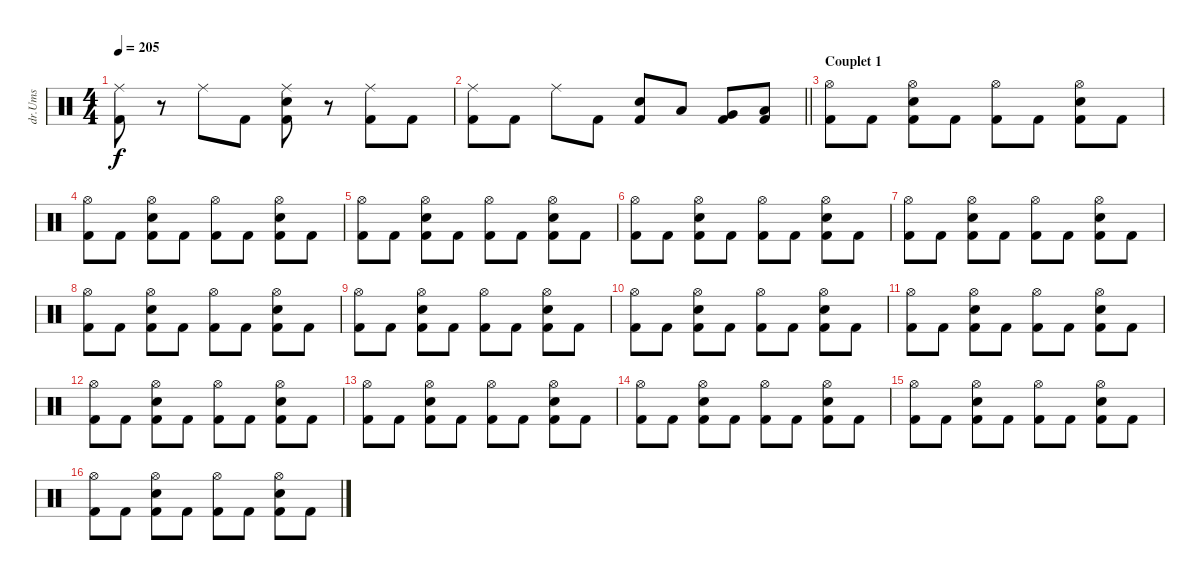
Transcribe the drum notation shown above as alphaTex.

\track ("dr.Ums" "dr.Ums") {instrument percussion}
\staff {score}
\articulation defaults
\ts (4 4)
\tempo 205
\clef neutral
\ks c
("Ride (middle)" "Kick (hit) 2").8{dy f} r.8 "Ride (middle)".8 "Kick (hit) 2".8 ("Ride (middle)" "Snare (hit) 2" "Kick (hit) 2").8 r.8 ("Ride (middle)" "Kick (hit) 2").8 "Kick (hit) 2".8 |
\barLineRight lightlight
("Ride (middle)" "Kick (hit) 2").8 "Kick (hit) 2".8 "Ride (middle)".8 "Kick (hit) 2".8 ("Snare (hit) 2" "Kick (hit) 2").8 "Low Tom (hit)".8 ("Very Low Tom (hit)" "Kick (hit) 2").8 ("Low Floor Tom (hit)" "Kick (hit) 2").8 |
\section ("" "Couplet 1")
("Kick (hit) 2" "Hi-Hat (open)").8 "Kick (hit) 2".8 ("Kick (hit) 2" "Hi-Hat (open)" "Snare (hit) 2").8 "Kick (hit) 2".8 ("Kick (hit) 2" "Hi-Hat (open)").8 "Kick (hit) 2".8 ("Kick (hit) 2" "Hi-Hat (open)" "Snare (hit) 2").8 "Kick (hit) 2".8 |
("Kick (hit) 2" "Hi-Hat (open)").8 "Kick (hit) 2".8 ("Kick (hit) 2" "Hi-Hat (open)" "Snare (hit) 2").8 "Kick (hit) 2".8 ("Kick (hit) 2" "Hi-Hat (open)").8 "Kick (hit) 2".8 ("Kick (hit) 2" "Hi-Hat (open)" "Snare (hit) 2").8 "Kick (hit) 2".8 |
("Kick (hit) 2" "Hi-Hat (open)").8 "Kick (hit) 2".8 ("Kick (hit) 2" "Hi-Hat (open)" "Snare (hit) 2").8 "Kick (hit) 2".8 ("Kick (hit) 2" "Hi-Hat (open)").8 "Kick (hit) 2".8 ("Kick (hit) 2" "Hi-Hat (open)" "Snare (hit) 2").8 "Kick (hit) 2".8 |
("Kick (hit) 2" "Hi-Hat (open)").8 "Kick (hit) 2".8 ("Kick (hit) 2" "Hi-Hat (open)" "Snare (hit) 2").8 "Kick (hit) 2".8 ("Kick (hit) 2" "Hi-Hat (open)").8 "Kick (hit) 2".8 ("Kick (hit) 2" "Hi-Hat (open)" "Snare (hit) 2").8 "Kick (hit) 2".8 |
("Kick (hit) 2" "Hi-Hat (open)").8 "Kick (hit) 2".8 ("Kick (hit) 2" "Hi-Hat (open)" "Snare (hit) 2").8 "Kick (hit) 2".8 ("Kick (hit) 2" "Hi-Hat (open)").8 "Kick (hit) 2".8 ("Kick (hit) 2" "Hi-Hat (open)" "Snare (hit) 2").8 "Kick (hit) 2".8 |
("Kick (hit) 2" "Hi-Hat (open)").8 "Kick (hit) 2".8 ("Kick (hit) 2" "Hi-Hat (open)" "Snare (hit) 2").8 "Kick (hit) 2".8 ("Kick (hit) 2" "Hi-Hat (open)").8 "Kick (hit) 2".8 ("Kick (hit) 2" "Hi-Hat (open)" "Snare (hit) 2").8 "Kick (hit) 2".8 |
("Kick (hit) 2" "Hi-Hat (open)").8 "Kick (hit) 2".8 ("Kick (hit) 2" "Hi-Hat (open)" "Snare (hit) 2").8 "Kick (hit) 2".8 ("Kick (hit) 2" "Hi-Hat (open)").8 "Kick (hit) 2".8 ("Kick (hit) 2" "Hi-Hat (open)" "Snare (hit) 2").8 "Kick (hit) 2".8 |
("Kick (hit) 2" "Hi-Hat (open)").8 "Kick (hit) 2".8 ("Kick (hit) 2" "Hi-Hat (open)" "Snare (hit) 2").8 "Kick (hit) 2".8 ("Kick (hit) 2" "Hi-Hat (open)").8 "Kick (hit) 2".8 ("Kick (hit) 2" "Hi-Hat (open)" "Snare (hit) 2").8 "Kick (hit) 2".8 |
("Kick (hit) 2" "Hi-Hat (open)").8 "Kick (hit) 2".8 ("Kick (hit) 2" "Hi-Hat (open)" "Snare (hit) 2").8 "Kick (hit) 2".8 ("Kick (hit) 2" "Hi-Hat (open)").8 "Kick (hit) 2".8 ("Kick (hit) 2" "Hi-Hat (open)" "Snare (hit) 2").8 "Kick (hit) 2".8 |
("Kick (hit) 2" "Hi-Hat (open)").8 "Kick (hit) 2".8 ("Kick (hit) 2" "Hi-Hat (open)" "Snare (hit) 2").8 "Kick (hit) 2".8 ("Kick (hit) 2" "Hi-Hat (open)").8 "Kick (hit) 2".8 ("Kick (hit) 2" "Hi-Hat (open)" "Snare (hit) 2").8 "Kick (hit) 2".8 |
("Kick (hit) 2" "Hi-Hat (open)").8 "Kick (hit) 2".8 ("Kick (hit) 2" "Hi-Hat (open)" "Snare (hit) 2").8 "Kick (hit) 2".8 ("Kick (hit) 2" "Hi-Hat (open)").8 "Kick (hit) 2".8 ("Kick (hit) 2" "Hi-Hat (open)" "Snare (hit) 2").8 "Kick (hit) 2".8 |
("Kick (hit) 2" "Hi-Hat (open)").8 "Kick (hit) 2".8 ("Kick (hit) 2" "Hi-Hat (open)" "Snare (hit) 2").8 "Kick (hit) 2".8 ("Kick (hit) 2" "Hi-Hat (open)").8 "Kick (hit) 2".8 ("Kick (hit) 2" "Hi-Hat (open)" "Snare (hit) 2").8 "Kick (hit) 2".8 |
("Kick (hit) 2" "Hi-Hat (open)").8 "Kick (hit) 2".8 ("Kick (hit) 2" "Hi-Hat (open)" "Snare (hit) 2").8 "Kick (hit) 2".8 ("Kick (hit) 2" "Hi-Hat (open)").8 "Kick (hit) 2".8 ("Kick (hit) 2" "Hi-Hat (open)" "Snare (hit) 2").8 "Kick (hit) 2".8 |
("Kick (hit) 2" "Hi-Hat (open)").8 "Kick (hit) 2".8 ("Kick (hit) 2" "Hi-Hat (open)" "Snare (hit) 2").8 "Kick (hit) 2".8 ("Kick (hit) 2" "Hi-Hat (open)").8 "Kick (hit) 2".8 ("Kick (hit) 2" "Hi-Hat (open)" "Snare (hit) 2").8 "Kick (hit) 2".8
